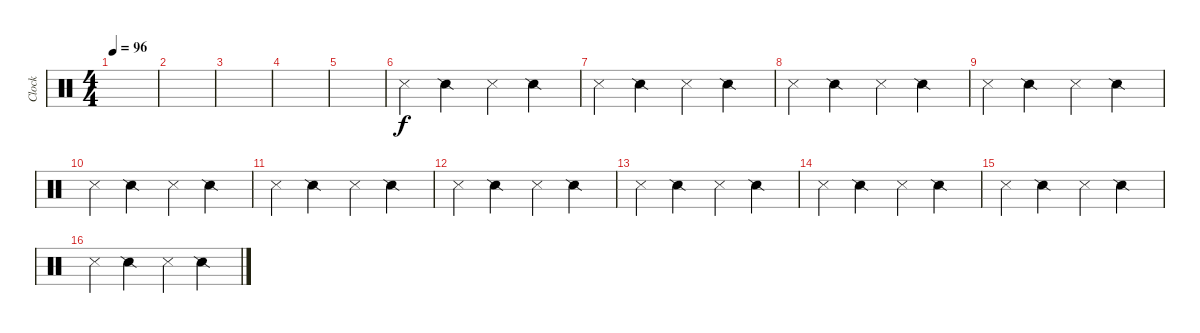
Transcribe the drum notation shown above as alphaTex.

\track ("Clock" "Clock") {instrument percussion}
\staff {score}
\articulation defaults
\ts (4 4)
\tempo 96
\clef neutral
\ks c
|
|
|
|
|
"Snare (side stick) 3".4 "Snare (side stick) 2".4 "Snare (side stick) 3".4 "Snare (side stick) 2".4 |
"Snare (side stick) 3".4 "Snare (side stick) 2".4 "Snare (side stick) 3".4 "Snare (side stick) 2".4 |
"Snare (side stick) 3".4 "Snare (side stick) 2".4 "Snare (side stick) 3".4 "Snare (side stick) 2".4 |
"Snare (side stick) 3".4 "Snare (side stick) 2".4 "Snare (side stick) 3".4 "Snare (side stick) 2".4 |
"Snare (side stick) 3".4 "Snare (side stick) 2".4 "Snare (side stick) 3".4 "Snare (side stick) 2".4 |
"Snare (side stick) 3".4 "Snare (side stick) 2".4 "Snare (side stick) 3".4 "Snare (side stick) 2".4 |
"Snare (side stick) 3".4 "Snare (side stick) 2".4 "Snare (side stick) 3".4 "Snare (side stick) 2".4 |
"Snare (side stick) 3".4 "Snare (side stick) 2".4 "Snare (side stick) 3".4 "Snare (side stick) 2".4 |
"Snare (side stick) 3".4 "Snare (side stick) 2".4 "Snare (side stick) 3".4 "Snare (side stick) 2".4 |
"Snare (side stick) 3".4 "Snare (side stick) 2".4 "Snare (side stick) 3".4 "Snare (side stick) 2".4 |
"Snare (side stick) 3".4 "Snare (side stick) 2".4 "Snare (side stick) 3".4 "Snare (side stick) 2".4
